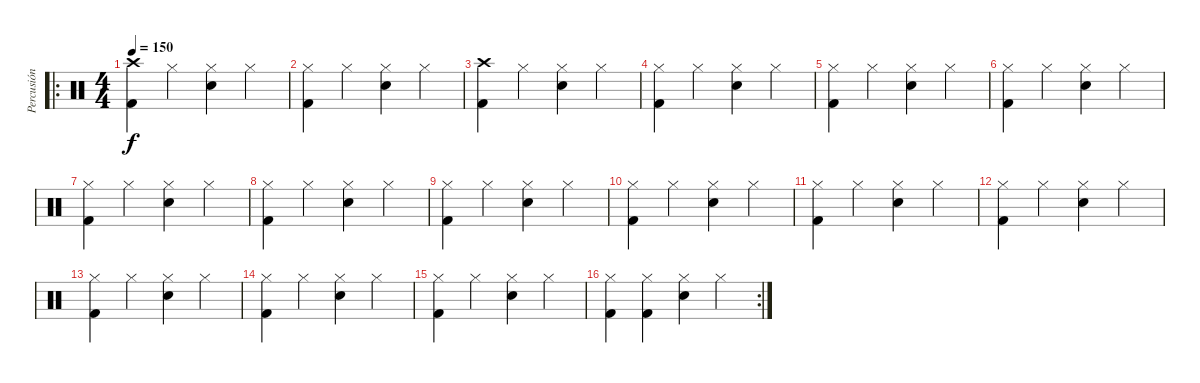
\track ("Percusión" "Percusión") {instrument percussion}
\staff {score}
\articulation defaults
\ro
\ts (4 4)
\tempo 150
\clef neutral
\ks c
("Kick (hit) 2" "Crash high (hit)").4{dy f} "Hi-Hat (closed)".4 ("Snare (hit) 2" "Hi-Hat (closed)").4 "Hi-Hat (closed)".4 |
("Kick (hit) 2" "Hi-Hat (closed)").4 "Hi-Hat (closed)".4 ("Snare (hit) 2" "Hi-Hat (closed)").4 "Hi-Hat (closed)".4 |
("Kick (hit) 2" "Crash high (hit)").4 "Hi-Hat (closed)".4 ("Snare (hit) 2" "Hi-Hat (closed)").4 "Hi-Hat (closed)".4 |
("Kick (hit) 2" "Hi-Hat (closed)").4 "Hi-Hat (closed)".4 ("Snare (hit) 2" "Hi-Hat (closed)").4 "Hi-Hat (closed)".4 |
("Kick (hit) 2" "Hi-Hat (closed)").4 "Hi-Hat (closed)".4 ("Snare (hit) 2" "Hi-Hat (closed)").4 "Hi-Hat (closed)".4 |
("Kick (hit) 2" "Hi-Hat (closed)").4 "Hi-Hat (closed)".4 ("Snare (hit) 2" "Hi-Hat (closed)").4 "Hi-Hat (closed)".4 |
("Kick (hit) 2" "Hi-Hat (closed)").4 "Hi-Hat (closed)".4 ("Snare (hit) 2" "Hi-Hat (closed)").4 "Hi-Hat (closed)".4 |
("Kick (hit) 2" "Hi-Hat (closed)").4 "Hi-Hat (closed)".4 ("Snare (hit) 2" "Hi-Hat (closed)").4 "Hi-Hat (closed)".4 |
("Kick (hit) 2" "Hi-Hat (closed)").4 "Hi-Hat (closed)".4 ("Snare (hit) 2" "Hi-Hat (closed)").4 "Hi-Hat (closed)".4 |
("Kick (hit) 2" "Hi-Hat (closed)").4 "Hi-Hat (closed)".4 ("Snare (hit) 2" "Hi-Hat (closed)").4 "Hi-Hat (closed)".4 |
("Kick (hit) 2" "Hi-Hat (closed)").4 "Hi-Hat (closed)".4 ("Snare (hit) 2" "Hi-Hat (closed)").4 "Hi-Hat (closed)".4 |
("Kick (hit) 2" "Hi-Hat (closed)").4 "Hi-Hat (closed)".4 ("Snare (hit) 2" "Hi-Hat (closed)").4 "Hi-Hat (closed)".4 |
("Kick (hit) 2" "Hi-Hat (closed)").4 "Hi-Hat (closed)".4 ("Snare (hit) 2" "Hi-Hat (closed)").4 "Hi-Hat (closed)".4 |
("Kick (hit) 2" "Hi-Hat (closed)").4 "Hi-Hat (closed)".4 ("Snare (hit) 2" "Hi-Hat (closed)").4 "Hi-Hat (closed)".4 |
("Kick (hit) 2" "Hi-Hat (closed)").4 "Hi-Hat (closed)".4 ("Snare (hit) 2" "Hi-Hat (closed)").4 "Hi-Hat (closed)".4 |
\rc 2
("Kick (hit) 2" "Hi-Hat (closed)").4 ("Kick (hit) 2" "Hi-Hat (closed)").4 ("Snare (hit) 2" "Hi-Hat (closed)").4 "Hi-Hat (closed)".4
